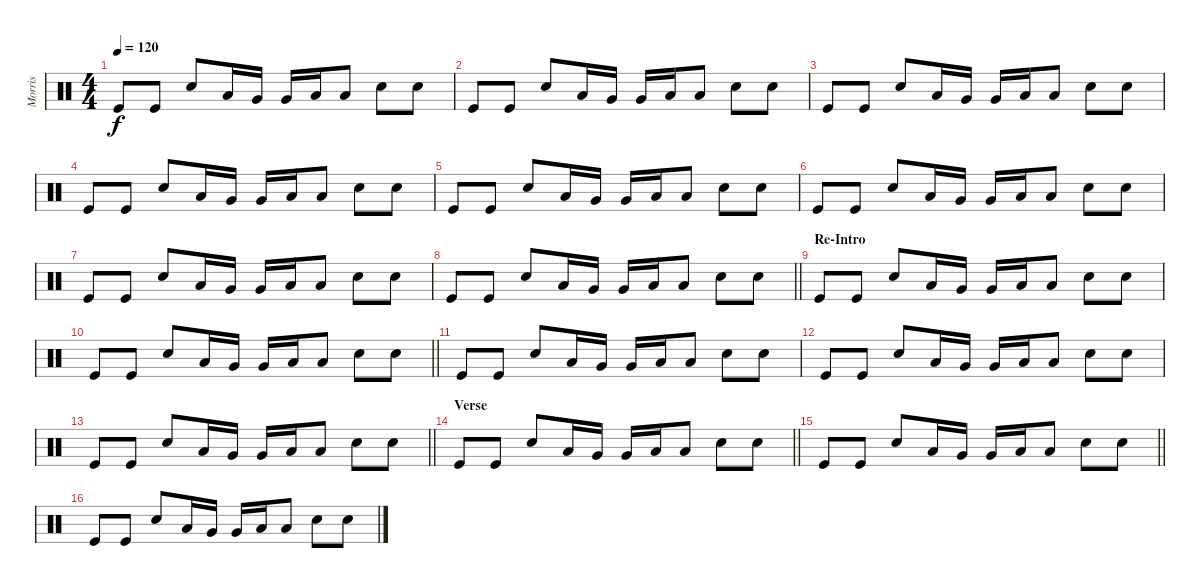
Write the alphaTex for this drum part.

\track ("Morris" "Morris") {instrument percussion}
\staff {score}
\articulation defaults
\ts (4 4)
\tempo 120
\clef neutral
\ks c "Kick (hit)".8{dy f} "Kick (hit)".8 "Electric Snare (hit)".8 "Low Floor Tom (hit)".16 "Very Low Tom (hit)".16 "Very Low Tom (hit)".16 "Low Floor Tom (hit)".16 "Low Tom (hit)".8 "Electric Snare (hit)".8 "Electric Snare (hit)".8
|
"Kick (hit)".8 "Kick (hit)".8 "Electric Snare (hit)".8 "Low Floor Tom (hit)".16 "Very Low Tom (hit)".16 "Very Low Tom (hit)".16 "Low Floor Tom (hit)".16 "Low Tom (hit)".8 "Electric Snare (hit)".8 "Electric Snare (hit)".8 |
"Kick (hit)".8 "Kick (hit)".8 "Electric Snare (hit)".8 "Low Floor Tom (hit)".16 "Very Low Tom (hit)".16 "Very Low Tom (hit)".16 "Low Floor Tom (hit)".16 "Low Tom (hit)".8 "Electric Snare (hit)".8 "Electric Snare (hit)".8 |
"Kick (hit)".8 "Kick (hit)".8 "Electric Snare (hit)".8 "Low Floor Tom (hit)".16 "Very Low Tom (hit)".16 "Very Low Tom (hit)".16 "Low Floor Tom (hit)".16 "Low Tom (hit)".8 "Electric Snare (hit)".8 "Electric Snare (hit)".8 |
"Kick (hit)".8 "Kick (hit)".8 "Electric Snare (hit)".8 "Low Floor Tom (hit)".16 "Very Low Tom (hit)".16 "Very Low Tom (hit)".16 "Low Floor Tom (hit)".16 "Low Tom (hit)".8 "Electric Snare (hit)".8 "Electric Snare (hit)".8 |
"Kick (hit)".8 "Kick (hit)".8 "Electric Snare (hit)".8 "Low Floor Tom (hit)".16 "Very Low Tom (hit)".16 "Very Low Tom (hit)".16 "Low Floor Tom (hit)".16 "Low Tom (hit)".8 "Electric Snare (hit)".8 "Electric Snare (hit)".8 |
"Kick (hit)".8 "Kick (hit)".8 "Electric Snare (hit)".8 "Low Floor Tom (hit)".16 "Very Low Tom (hit)".16 "Very Low Tom (hit)".16 "Low Floor Tom (hit)".16 "Low Tom (hit)".8 "Electric Snare (hit)".8 "Electric Snare (hit)".8 |
\barLineRight lightlight "Kick (hit)".8 "Kick (hit)".8 "Electric Snare (hit)".8 "Low Floor Tom (hit)".16 "Very Low Tom (hit)".16 "Very Low Tom (hit)".16 "Low Floor Tom (hit)".16 "Low Tom (hit)".8 "Electric Snare (hit)".8 "Electric Snare (hit)".8
|
\section ("" "Re-Intro")
"Kick (hit)".8 "Kick (hit)".8 "Electric Snare (hit)".8 "Low Floor Tom (hit)".16 "Very Low Tom (hit)".16 "Very Low Tom (hit)".16 "Low Floor Tom (hit)".16 "Low Tom (hit)".8 "Electric Snare (hit)".8 "Electric Snare (hit)".8 |
\barLineRight lightlight "Kick (hit)".8 "Kick (hit)".8 "Electric Snare (hit)".8 "Low Floor Tom (hit)".16 "Very Low Tom (hit)".16 "Very Low Tom (hit)".16 "Low Floor Tom (hit)".16 "Low Tom (hit)".8 "Electric Snare (hit)".8 "Electric Snare (hit)".8
|
"Kick (hit)".8 "Kick (hit)".8 "Electric Snare (hit)".8 "Low Floor Tom (hit)".16 "Very Low Tom (hit)".16 "Very Low Tom (hit)".16 "Low Floor Tom (hit)".16 "Low Tom (hit)".8 "Electric Snare (hit)".8 "Electric Snare (hit)".8 |
"Kick (hit)".8 "Kick (hit)".8 "Electric Snare (hit)".8 "Low Floor Tom (hit)".16 "Very Low Tom (hit)".16 "Very Low Tom (hit)".16 "Low Floor Tom (hit)".16 "Low Tom (hit)".8 "Electric Snare (hit)".8 "Electric Snare (hit)".8 |
\barLineRight lightlight "Kick (hit)".8 "Kick (hit)".8 "Electric Snare (hit)".8 "Low Floor Tom (hit)".16 "Very Low Tom (hit)".16 "Very Low Tom (hit)".16 "Low Floor Tom (hit)".16 "Low Tom (hit)".8 "Electric Snare (hit)".8 "Electric Snare (hit)".8
|
\section ("" "Verse")
\barLineRight lightlight "Kick (hit)".8 "Kick (hit)".8 "Electric Snare (hit)".8 "Low Floor Tom (hit)".16 "Very Low Tom (hit)".16 "Very Low Tom (hit)".16 "Low Floor Tom (hit)".16 "Low Tom (hit)".8 "Electric Snare (hit)".8 "Electric Snare (hit)".8
|
\barLineRight lightlight "Kick (hit)".8 "Kick (hit)".8 "Electric Snare (hit)".8 "Low Floor Tom (hit)".16 "Very Low Tom (hit)".16 "Very Low Tom (hit)".16 "Low Floor Tom (hit)".16 "Low Tom (hit)".8 "Electric Snare (hit)".8 "Electric Snare (hit)".8
|
"Kick (hit)".8 "Kick (hit)".8 "Electric Snare (hit)".8 "Low Floor Tom (hit)".16 "Very Low Tom (hit)".16 "Very Low Tom (hit)".16 "Low Floor Tom (hit)".16 "Low Tom (hit)".8 "Electric Snare (hit)".8 "Electric Snare (hit)".8
